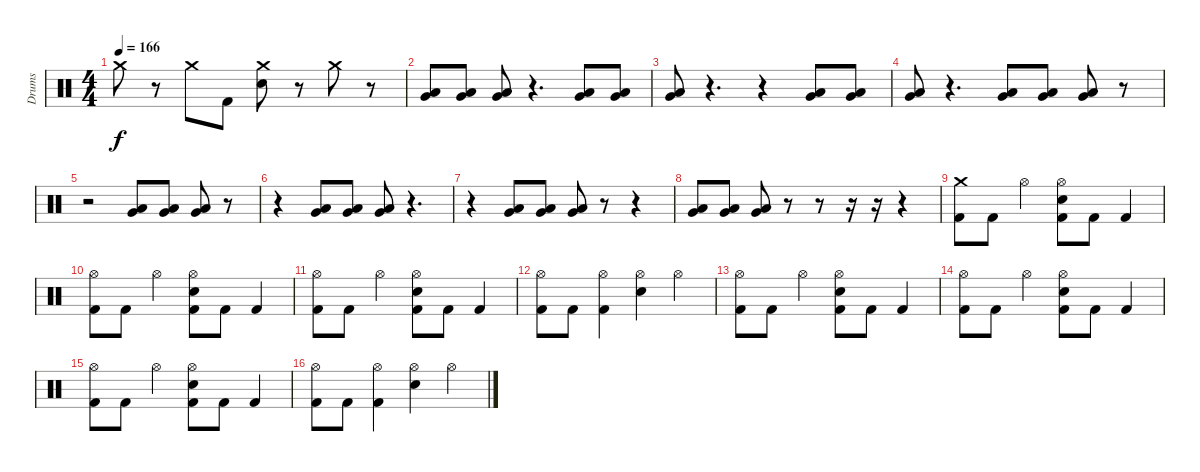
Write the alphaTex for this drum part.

\track ("Drums" "Drums") {instrument percussion}
\staff {score}
\articulation defaults
\ts (4 4)
\tempo 166
\clef neutral
\ks c "Crash medium (hit)".8{dy f}
r.8 "Crash medium (hit)".8 "Kick (hit) 2".8 ("Crash medium (hit)" "Snare (hit) 2").8 r.8 "Crash medium (hit)".8 r.8 |
("Low Tom (hit)" "Very Low Tom (hit)").8 ("Low Tom (hit)" "Very Low Tom (hit)").8 ("Low Tom (hit)" "Very Low Tom (hit)").8 r.4{d} ("Low Tom (hit)" "Very Low Tom (hit)").8 ("Low Tom (hit)" "Very Low Tom (hit)").8 |
("Low Tom (hit)" "Very Low Tom (hit)").8 r.4{d} r.4 ("Low Tom (hit)" "Very Low Tom (hit)").8 ("Low Tom (hit)" "Very Low Tom (hit)").8 |
("Low Tom (hit)" "Very Low Tom (hit)").8 r.4{d} ("Low Tom (hit)" "Very Low Tom (hit)").8 ("Low Tom (hit)" "Very Low Tom (hit)").8 ("Low Tom (hit)" "Very Low Tom (hit)").8 r.8 |
r.2 ("Low Tom (hit)" "Very Low Tom (hit)").8 ("Low Tom (hit)" "Very Low Tom (hit)").8 ("Low Tom (hit)" "Very Low Tom (hit)").8 r.8 |
r.4 ("Low Tom (hit)" "Very Low Tom (hit)").8 ("Low Tom (hit)" "Very Low Tom (hit)").8 ("Low Tom (hit)" "Very Low Tom (hit)").8 r.4{d} |
r.4 ("Low Tom (hit)" "Very Low Tom (hit)").8 ("Low Tom (hit)" "Very Low Tom (hit)").8 ("Low Tom (hit)" "Very Low Tom (hit)").8 r.8 r.4 |
("Low Tom (hit)" "Very Low Tom (hit)").8 ("Low Tom (hit)" "Very Low Tom (hit)").8 ("Low Tom (hit)" "Very Low Tom (hit)").8 r.8 r.8 r.16 r.16 r.4 |
("Crash medium (hit)" "Kick (hit) 2").8 "Kick (hit) 2".8 "Hi-Hat (open)".4 ("Hi-Hat (open)" "Snare (hit) 2" "Kick (hit) 2").8 "Kick (hit) 2".8 "Kick (hit) 2".4 |
("Hi-Hat (open)" "Kick (hit) 2").8 "Kick (hit) 2".8 "Hi-Hat (open)".4 ("Hi-Hat (open)" "Snare (hit) 2" "Kick (hit) 2").8 "Kick (hit) 2".8 "Kick (hit) 2".4 |
("Hi-Hat (open)" "Kick (hit) 2").8 "Kick (hit) 2".8 "Hi-Hat (open)".4 ("Hi-Hat (open)" "Snare (hit) 2" "Kick (hit) 2").8 "Kick (hit) 2".8 "Kick (hit) 2".4 |
("Hi-Hat (open)" "Kick (hit) 2").8 "Kick (hit) 2".8 ("Hi-Hat (open)" "Kick (hit) 2").4 ("Hi-Hat (open)" "Snare (hit) 2").4 "Hi-Hat (open)".4 |
("Hi-Hat (open)" "Kick (hit) 2").8 "Kick (hit) 2".8 "Hi-Hat (open)".4 ("Hi-Hat (open)" "Snare (hit) 2" "Kick (hit) 2").8 "Kick (hit) 2".8 "Kick (hit) 2".4 |
("Hi-Hat (open)" "Kick (hit) 2").8 "Kick (hit) 2".8 "Hi-Hat (open)".4 ("Hi-Hat (open)" "Snare (hit) 2" "Kick (hit) 2").8 "Kick (hit) 2".8 "Kick (hit) 2".4 |
("Hi-Hat (open)" "Kick (hit) 2").8 "Kick (hit) 2".8 "Hi-Hat (open)".4 ("Hi-Hat (open)" "Snare (hit) 2" "Kick (hit) 2").8 "Kick (hit) 2".8 "Kick (hit) 2".4 |
("Hi-Hat (open)" "Kick (hit) 2").8 "Kick (hit) 2".8 ("Hi-Hat (open)" "Kick (hit) 2").4 ("Hi-Hat (open)" "Snare (hit) 2").4 "Hi-Hat (open)".4
